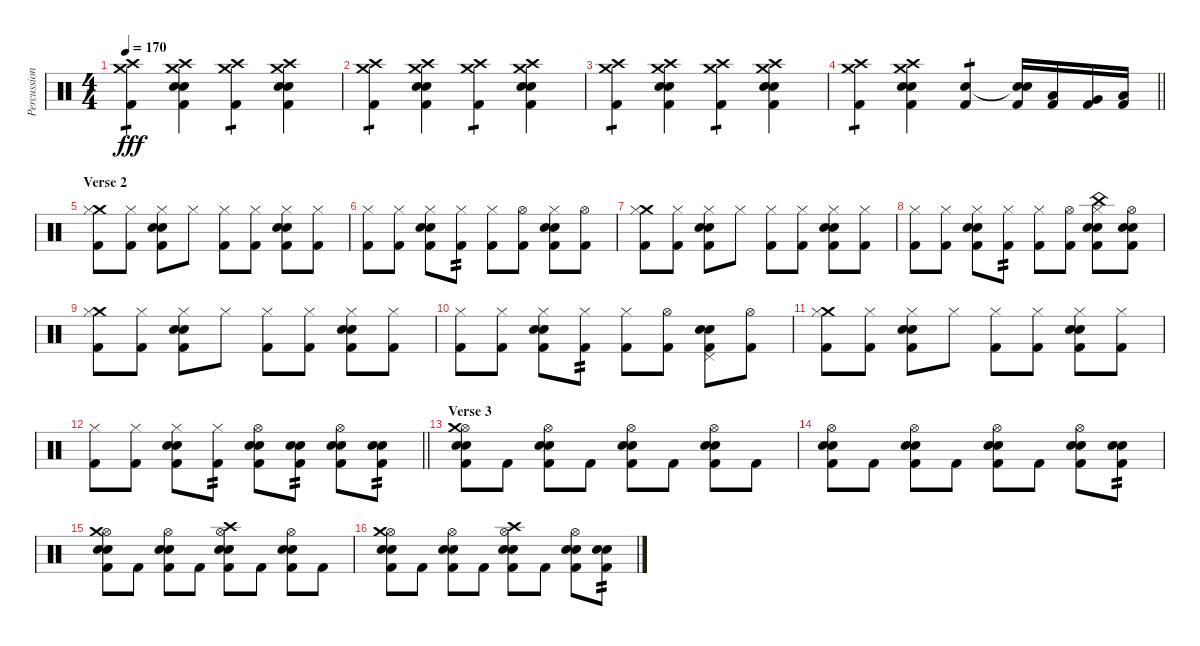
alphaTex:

\track ("Percussion" "Percussion") {instrument percussion}
\staff {score}
\articulation defaults
\ts (4 4)
\tempo 170
\clef neutral
\ks c
("Crash high (hit)" "Crash medium (hit)" "Kick (hit) 2").4{tp 1 dy fff} ("Crash high (hit)" "Crash medium (hit)" "Electric Snare (hit)" "Snare (hit) 2" "Kick (hit) 2").4 ("Crash high (hit)" "Crash medium (hit)" "Kick (hit) 2").4{tp 1} ("Crash high (hit)" "Crash medium (hit)" "Electric Snare (hit)" "Snare (hit) 2" "Kick (hit) 2").4 |
("Crash high (hit)" "Crash medium (hit)" "Kick (hit) 2").4{tp 1} ("Crash high (hit)" "Crash medium (hit)" "Electric Snare (hit)" "Snare (hit) 2" "Kick (hit) 2").4 ("Crash high (hit)" "Crash medium (hit)" "Kick (hit) 2").4{tp 1} ("Crash high (hit)" "Crash medium (hit)" "Electric Snare (hit)" "Snare (hit) 2" "Kick (hit) 2").4 |
("Crash high (hit)" "Crash medium (hit)" "Kick (hit) 2").4{tp 1} ("Crash high (hit)" "Crash medium (hit)" "Electric Snare (hit)" "Snare (hit) 2" "Kick (hit) 2").4 ("Crash high (hit)" "Crash medium (hit)" "Kick (hit) 2").4{tp 1} ("Crash high (hit)" "Crash medium (hit)" "Electric Snare (hit)" "Snare (hit) 2" "Kick (hit) 2").4 |
\barLineRight lightlight
("Crash high (hit)" "Crash medium (hit)" "Kick (hit) 2").4{tp 1} ("Crash high (hit)" "Crash medium (hit)" "Electric Snare (hit)" "Snare (hit) 2" "Kick (hit) 2").4 ("Electric Snare (hit)" "Kick (hit) 2").4{tp 1} ("Electric Snare (hit)"{t} "Snare (hit) 2" "Kick (hit) 2").16 ("Low Tom (hit)" "Kick (hit) 2").16 ("Very Low Tom (hit)" "Kick (hit) 2").16 ("Low Floor Tom (hit)" "Kick (hit) 2").16 |
\section ("" "Verse 2")
("Crash medium (hit)" "Hi-Hat (closed)" "Kick (hit) 2").8 ("Hi-Hat (closed)" "Kick (hit) 2").8 ("Hi-Hat (closed)" "Electric Snare (hit)" "Snare (hit) 2" "Kick (hit) 2").8 "Hi-Hat (closed)".8 ("Hi-Hat (closed)" "Kick (hit) 2").8 ("Hi-Hat (closed)" "Kick (hit) 2").8 ("Hi-Hat (closed)" "Electric Snare (hit)" "Snare (hit) 2" "Kick (hit) 2").8 ("Hi-Hat (closed)" "Kick (hit) 2").8 |
("Hi-Hat (closed)" "Kick (hit) 2").8 ("Hi-Hat (closed)" "Kick (hit) 2").8 ("Hi-Hat (closed)" "Electric Snare (hit)" "Snare (hit) 2" "Kick (hit) 2").8 ("Hi-Hat (closed)" "Kick (hit) 2").8{tp 2} ("Hi-Hat (closed)" "Kick (hit) 2").8 ("Hi-Hat (open)" "Kick (hit) 2").8 ("Hi-Hat (closed)" "Electric Snare (hit)" "Snare (hit) 2" "Kick (hit) 2").8 ("Hi-Hat (open)" "Kick (hit) 2").8 |
("Crash medium (hit)" "Hi-Hat (closed)" "Kick (hit) 2").8 ("Hi-Hat (closed)" "Kick (hit) 2").8 ("Hi-Hat (closed)" "Electric Snare (hit)" "Snare (hit) 2" "Kick (hit) 2").8 "Hi-Hat (closed)".8 ("Hi-Hat (closed)" "Kick (hit) 2").8 ("Hi-Hat (closed)" "Kick (hit) 2").8 ("Hi-Hat (closed)" "Electric Snare (hit)" "Snare (hit) 2" "Kick (hit) 2").8 ("Hi-Hat (closed)" "Kick (hit) 2").8 |
("Hi-Hat (closed)" "Kick (hit) 2").8 ("Hi-Hat (closed)" "Kick (hit) 2").8 ("Hi-Hat (closed)" "Electric Snare (hit)" "Snare (hit) 2" "Kick (hit) 2").8 ("Hi-Hat (closed)" "Kick (hit) 2").8{tp 2} ("Hi-Hat (closed)" "Kick (hit) 2").8 ("Hi-Hat (open)" "Kick (hit) 2").8 ("China (hit)" "Hi-Hat (closed)" "Electric Snare (hit)" "Snare (hit) 2" "Kick (hit) 2").8 ("Hi-Hat (open)" "Electric Snare (hit)" "Snare (hit) 2" "Kick (hit) 2").8 |
("Crash medium (hit)" "Hi-Hat (closed)" "Kick (hit) 2").8 ("Hi-Hat (closed)" "Kick (hit) 2").8 ("Hi-Hat (closed)" "Electric Snare (hit)" "Snare (hit) 2" "Kick (hit) 2").8 "Hi-Hat (closed)".8 ("Hi-Hat (closed)" "Kick (hit) 2").8 ("Hi-Hat (closed)" "Kick (hit) 2").8 ("Hi-Hat (closed)" "Electric Snare (hit)" "Snare (hit) 2" "Kick (hit) 2").8 ("Hi-Hat (closed)" "Kick (hit) 2").8 |
("Hi-Hat (closed)" "Kick (hit) 2").8 ("Hi-Hat (closed)" "Kick (hit) 2").8 ("Hi-Hat (closed)" "Electric Snare (hit)" "Snare (hit) 2" "Kick (hit) 2").8 ("Hi-Hat (closed)" "Kick (hit) 2").8{tp 2} ("Hi-Hat (closed)" "Kick (hit) 2").8 ("Hi-Hat (open)" "Kick (hit) 2").8 ("Pedal Hi-Hat (hit)" "Electric Snare (hit)" "Snare (hit) 2" "Kick (hit) 2").8 ("Hi-Hat (open)" "Kick (hit) 2").8 |
("Crash medium (hit)" "Hi-Hat (closed)" "Kick (hit) 2").8 ("Hi-Hat (closed)" "Kick (hit) 2").8 ("Hi-Hat (closed)" "Electric Snare (hit)" "Snare (hit) 2" "Kick (hit) 2").8 "Hi-Hat (closed)".8 ("Hi-Hat (closed)" "Kick (hit) 2").8 ("Hi-Hat (closed)" "Kick (hit) 2").8 ("Hi-Hat (closed)" "Electric Snare (hit)" "Snare (hit) 2" "Kick (hit) 2").8 ("Hi-Hat (closed)" "Kick (hit) 2").8 |
\barLineRight lightlight
("Hi-Hat (closed)" "Kick (hit) 2").8 ("Hi-Hat (closed)" "Kick (hit) 2").8 ("Hi-Hat (closed)" "Electric Snare (hit)" "Snare (hit) 2" "Kick (hit) 2").8 ("Hi-Hat (closed)" "Kick (hit) 2").8{tp 2} ("Hi-Hat (open)" "Electric Snare (hit)" "Snare (hit) 2" "Kick (hit) 2").8 ("Electric Snare (hit)" "Snare (hit) 2" "Kick (hit) 2").8{tp 2} ("Hi-Hat (open)" "Electric Snare (hit)" "Snare (hit) 2" "Kick (hit) 2").8 ("Electric Snare (hit)" "Snare (hit) 2" "Kick (hit) 2").8{tp 2} |
\section ("" "Verse 3")
("Hi-Hat (open)" "Crash medium (hit)" "Electric Snare (hit)" "Snare (hit) 2" "Kick (hit) 2").8 "Kick (hit) 2".8 ("Hi-Hat (open)" "Electric Snare (hit)" "Snare (hit) 2" "Kick (hit) 2").8 "Kick (hit) 2".8 ("Hi-Hat (open)" "Electric Snare (hit)" "Snare (hit) 2" "Kick (hit) 2").8 "Kick (hit) 2".8 ("Hi-Hat (open)" "Electric Snare (hit)" "Snare (hit) 2" "Kick (hit) 2").8 "Kick (hit) 2".8 |
("Hi-Hat (open)" "Electric Snare (hit)" "Snare (hit) 2" "Kick (hit) 2").8 "Kick (hit) 2".8 ("Hi-Hat (open)" "Electric Snare (hit)" "Snare (hit) 2" "Kick (hit) 2").8 "Kick (hit) 2".8 ("Hi-Hat (open)" "Electric Snare (hit)" "Snare (hit) 2" "Kick (hit) 2").8 "Kick (hit) 2".8 ("Hi-Hat (open)" "Electric Snare (hit)" "Snare (hit) 2" "Kick (hit) 2").8 ("Electric Snare (hit)" "Snare (hit) 2" "Kick (hit) 2").8{tp 2} |
("Hi-Hat (open)" "Crash medium (hit)" "Electric Snare (hit)" "Snare (hit) 2" "Kick (hit) 2").8 "Kick (hit) 2".8 ("Hi-Hat (open)" "Electric Snare (hit)" "Snare (hit) 2" "Kick (hit) 2").8 "Kick (hit) 2".8 ("Hi-Hat (open)" "Crash high (hit)" "Electric Snare (hit)" "Snare (hit) 2" "Kick (hit) 2").8 "Kick (hit) 2".8 ("Hi-Hat (open)" "Electric Snare (hit)" "Snare (hit) 2" "Kick (hit) 2").8 "Kick (hit) 2".8 |
("Hi-Hat (open)" "Crash medium (hit)" "Electric Snare (hit)" "Snare (hit) 2" "Kick (hit) 2").8 "Kick (hit) 2".8 ("Hi-Hat (open)" "Electric Snare (hit)" "Snare (hit) 2" "Kick (hit) 2").8 "Kick (hit) 2".8 ("Hi-Hat (open)" "Crash high (hit)" "Electric Snare (hit)" "Snare (hit) 2" "Kick (hit) 2").8 "Kick (hit) 2".8 ("Hi-Hat (open)" "Electric Snare (hit)" "Snare (hit) 2" "Kick (hit) 2").8 ("Electric Snare (hit)" "Snare (hit) 2" "Kick (hit) 2").8{tp 2}
